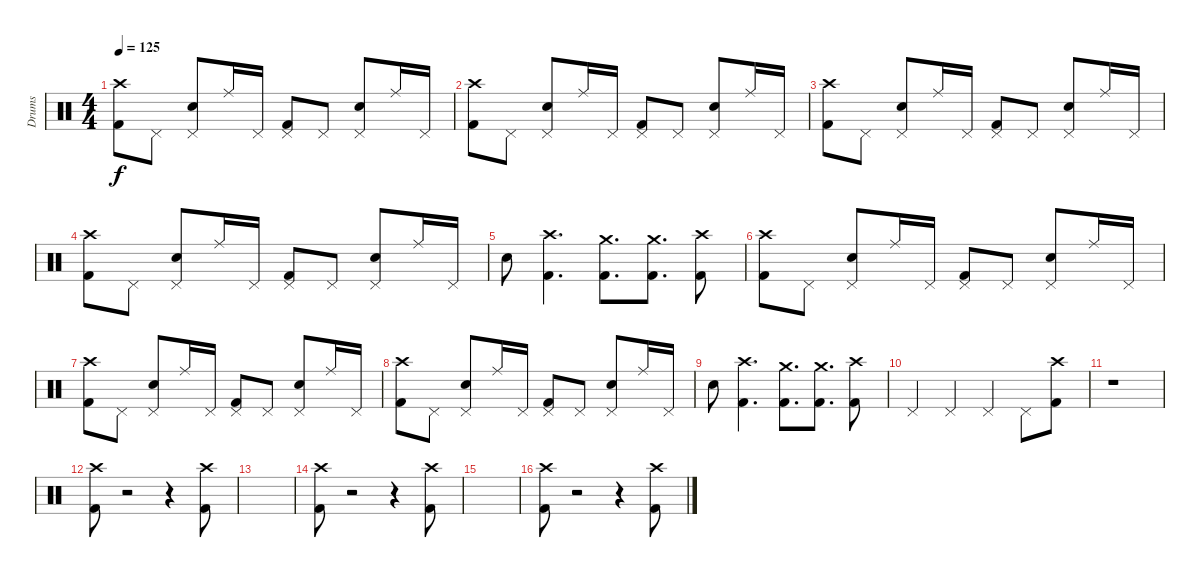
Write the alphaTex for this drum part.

\track ("Drums" "Drums") {instrument percussion}
\staff {score}
\articulation defaults
\ts (4 4)
\tempo 125
\clef neutral
\ks c
("Crash high (hit)" "Kick (hit) 2").8{dy f} "Pedal Hi-Hat (hit)".8 ("Pedal Hi-Hat (hit)" "Snare (hit) 2").8 "Ride (middle)".16 "Pedal Hi-Hat (hit)".16 ("Pedal Hi-Hat (hit)" "Kick (hit) 2").8 "Pedal Hi-Hat (hit)".8 ("Pedal Hi-Hat (hit)" "Snare (hit) 2").8 "Ride (middle)".16 "Pedal Hi-Hat (hit)".16 |
("Crash high (hit)" "Kick (hit) 2").8 "Pedal Hi-Hat (hit)".8 ("Pedal Hi-Hat (hit)" "Snare (hit) 2").8 "Ride (middle)".16 "Pedal Hi-Hat (hit)".16 ("Pedal Hi-Hat (hit)" "Kick (hit) 2").8 "Pedal Hi-Hat (hit)".8 ("Pedal Hi-Hat (hit)" "Snare (hit) 2").8 "Ride (middle)".16 "Pedal Hi-Hat (hit)".16 |
("Crash high (hit)" "Kick (hit) 2").8 "Pedal Hi-Hat (hit)".8 ("Pedal Hi-Hat (hit)" "Snare (hit) 2").8 "Ride (middle)".16 "Pedal Hi-Hat (hit)".16 ("Pedal Hi-Hat (hit)" "Kick (hit) 2").8 "Pedal Hi-Hat (hit)".8 ("Pedal Hi-Hat (hit)" "Snare (hit) 2").8 "Ride (middle)".16 "Pedal Hi-Hat (hit)".16 |
("Crash high (hit)" "Kick (hit) 2").8 "Pedal Hi-Hat (hit)".8 ("Pedal Hi-Hat (hit)" "Snare (hit) 2").8 "Ride (middle)".16 "Pedal Hi-Hat (hit)".16 ("Pedal Hi-Hat (hit)" "Kick (hit) 2").8 "Pedal Hi-Hat (hit)".8 ("Pedal Hi-Hat (hit)" "Snare (hit) 2").8 "Ride (middle)".16 "Pedal Hi-Hat (hit)".16 |
"Snare (hit) 2".8 ("Crash high (hit)" "Kick (hit) 2").4{d} ("Crash medium (hit)" "Kick (hit) 2").8{d} ("Crash medium (hit)" "Kick (hit) 2").8{d} ("Crash high (hit)" "Kick (hit) 2").8 |
("Crash high (hit)" "Kick (hit) 2").8 "Pedal Hi-Hat (hit)".8 ("Pedal Hi-Hat (hit)" "Snare (hit) 2").8 "Ride (middle)".16 "Pedal Hi-Hat (hit)".16 ("Pedal Hi-Hat (hit)" "Kick (hit) 2").8 "Pedal Hi-Hat (hit)".8 ("Pedal Hi-Hat (hit)" "Snare (hit) 2").8 "Ride (middle)".16 "Pedal Hi-Hat (hit)".16 |
("Crash high (hit)" "Kick (hit) 2").8 "Pedal Hi-Hat (hit)".8 ("Pedal Hi-Hat (hit)" "Snare (hit) 2").8 "Ride (middle)".16 "Pedal Hi-Hat (hit)".16 ("Pedal Hi-Hat (hit)" "Kick (hit) 2").8 "Pedal Hi-Hat (hit)".8 ("Pedal Hi-Hat (hit)" "Snare (hit) 2").8 "Ride (middle)".16 "Pedal Hi-Hat (hit)".16 |
("Crash high (hit)" "Kick (hit) 2").8 "Pedal Hi-Hat (hit)".8 ("Pedal Hi-Hat (hit)" "Snare (hit) 2").8 "Ride (middle)".16 "Pedal Hi-Hat (hit)".16 ("Pedal Hi-Hat (hit)" "Kick (hit) 2").8 "Pedal Hi-Hat (hit)".8 ("Pedal Hi-Hat (hit)" "Snare (hit) 2").8 "Ride (middle)".16 "Pedal Hi-Hat (hit)".16 |
"Snare (hit) 2".8 ("Crash high (hit)" "Kick (hit) 2").4{d} ("Kick (hit) 2" "Crash medium (hit)").8{d} ("Kick (hit) 2" "Crash medium (hit)").8{d} ("Crash high (hit)" "Kick (hit) 2").8 |
"Pedal Hi-Hat (hit)".4 "Pedal Hi-Hat (hit)".4 "Pedal Hi-Hat (hit)".4 "Pedal Hi-Hat (hit)".8 ("Crash high (hit)" "Kick (hit) 2").8 |
r.1 |
("Crash high (hit)" "Kick (hit) 2").8 r.2 r.4 ("Crash high (hit)" "Kick (hit) 2").8 |
|
("Crash high (hit)" "Kick (hit) 2").8 r.2 r.4 ("Crash high (hit)" "Kick (hit) 2").8 |
|
("Crash high (hit)" "Kick (hit) 2").8 r.2 r.4 ("Crash high (hit)" "Kick (hit) 2").8
